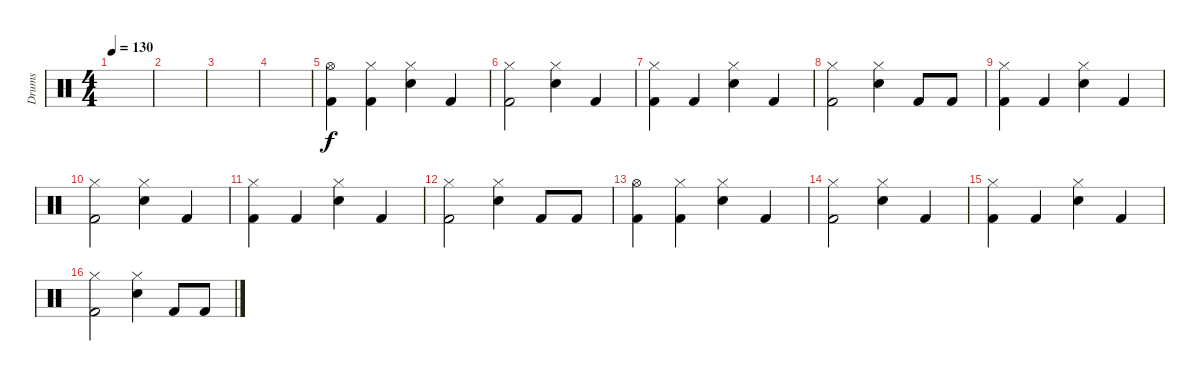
\track ("Drums" "Drums") {instrument percussion}
\staff {score}
\articulation defaults
\ts (4 4)
\tempo 130
\clef neutral
\ks c
|
|
|
|
("Hi-Hat (open)" "Kick (hit) 2").4{volume 14} ("Hi-Hat (closed)" "Kick (hit) 2").4 ("Hi-Hat (closed)" "Electric Snare (hit)").4 "Kick (hit) 2".4 |
("Hi-Hat (closed)" "Kick (hit) 2").2 ("Hi-Hat (closed)" "Electric Snare (hit)").4 "Kick (hit) 2".4 |
("Hi-Hat (closed)" "Kick (hit) 2").4 "Kick (hit) 2".4 ("Hi-Hat (closed)" "Electric Snare (hit)").4 "Kick (hit) 2".4 |
("Hi-Hat (closed)" "Kick (hit) 2").2 ("Hi-Hat (closed)" "Electric Snare (hit)").4 "Kick (hit) 2".8 "Kick (hit) 2".8 |
("Hi-Hat (closed)" "Kick (hit) 2").4 "Kick (hit) 2".4 ("Hi-Hat (closed)" "Electric Snare (hit)").4 "Kick (hit) 2".4 |
("Hi-Hat (closed)" "Kick (hit) 2").2 ("Hi-Hat (closed)" "Electric Snare (hit)").4 "Kick (hit) 2".4 |
("Hi-Hat (closed)" "Kick (hit) 2").4 "Kick (hit) 2".4 ("Hi-Hat (closed)" "Electric Snare (hit)").4 "Kick (hit) 2".4 |
("Hi-Hat (closed)" "Kick (hit) 2").2 ("Hi-Hat (closed)" "Electric Snare (hit)").4 "Kick (hit) 2".8 "Kick (hit) 2".8 |
("Hi-Hat (open)" "Kick (hit) 2").4{volume 10} ("Hi-Hat (closed)" "Kick (hit) 2").4 ("Hi-Hat (closed)" "Electric Snare (hit)").4 "Kick (hit) 2".4 |
("Hi-Hat (closed)" "Kick (hit) 2").2 ("Hi-Hat (closed)" "Electric Snare (hit)").4 "Kick (hit) 2".4 |
("Hi-Hat (closed)" "Kick (hit) 2").4 "Kick (hit) 2".4 ("Hi-Hat (closed)" "Electric Snare (hit)").4 "Kick (hit) 2".4 |
("Hi-Hat (closed)" "Kick (hit) 2").2 ("Hi-Hat (closed)" "Electric Snare (hit)").4 "Kick (hit) 2".8 "Kick (hit) 2".8
